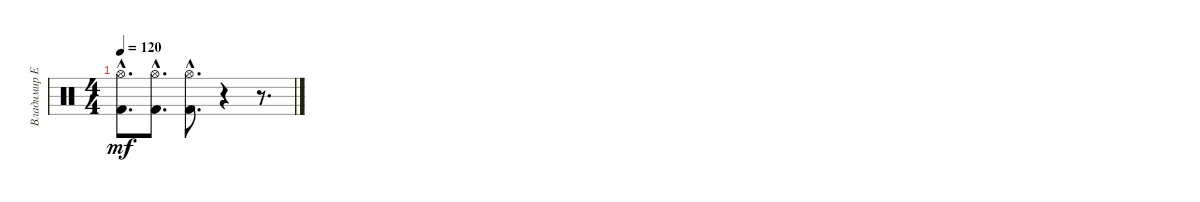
\track ("Владимир Ермаков" "Владимир Е") {instrument percussion}
\staff {score}
\articulation defaults
\ts (4 4)
\tempo 120
\clef neutral
\ks c
("Hi-Hat (open)"{hac} "Kick (hit) 2"{hac}).8{d dy mf} ("Hi-Hat (open)"{hac} "Kick (hit) 2"{hac}).8{d} ("Hi-Hat (open)"{hac} "Kick (hit) 2"{hac}).8{d} r.4 r.8{d}
